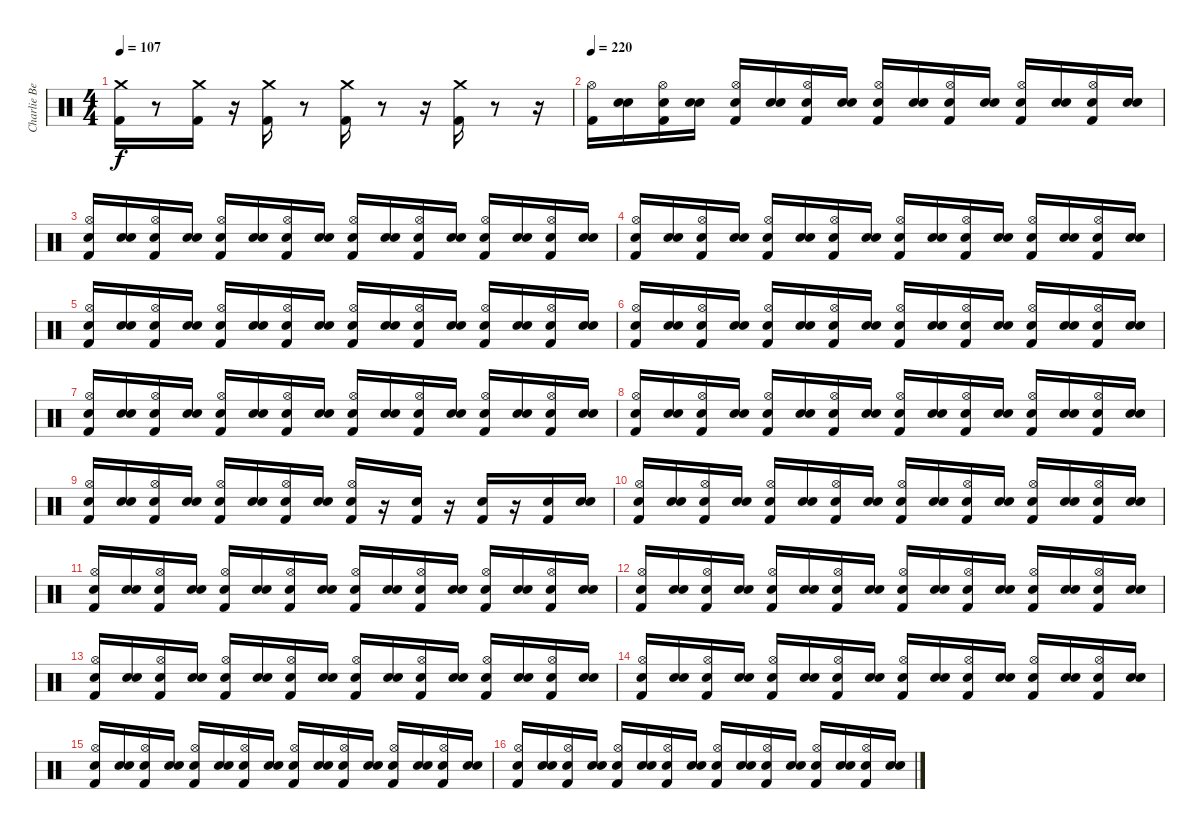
\track ("Charlie Benante" "Charlie Be") {instrument percussion}
\staff {score}
\articulation defaults
\ts (4 4)
\tempo 107
\clef neutral
\ks c
("Kick (hit) 2" "Crash medium (hit)").16{dy f} r.8 ("Kick (hit) 2" "Crash medium (hit)").16 r.16 ("Kick (hit) 2" "Crash medium (hit)").16 r.8 ("Kick (hit) 2" "Crash medium (hit)").16 r.8 r.16 ("Kick (hit) 2" "Crash medium (hit)").16 r.8 r.16 |
\tempo 220
("Kick (hit) 2" "Hi-Hat (open)").16 ("Snare (hit)" "Snare (hit) 2").16 ("Snare (hit)" "Kick (hit) 2" "Hi-Hat (open)").16 ("Snare (hit)" "Snare (hit) 2").16 ("Snare (hit)" "Kick (hit) 2" "Hi-Hat (open)").16 ("Snare (hit)" "Snare (hit) 2").16 ("Snare (hit)" "Kick (hit) 2" "Hi-Hat (open)").16 ("Snare (hit)" "Snare (hit) 2").16 ("Snare (hit)" "Kick (hit) 2" "Hi-Hat (open)").16 ("Snare (hit)" "Snare (hit) 2").16 ("Snare (hit)" "Kick (hit) 2" "Hi-Hat (open)").16 ("Snare (hit)" "Snare (hit) 2").16 ("Snare (hit)" "Kick (hit) 2" "Hi-Hat (open)").16 ("Snare (hit)" "Snare (hit) 2").16 ("Snare (hit)" "Kick (hit) 2" "Hi-Hat (open)").16 ("Snare (hit)" "Snare (hit) 2").16 |
("Snare (hit)" "Kick (hit) 2" "Hi-Hat (open)").16 ("Snare (hit)" "Snare (hit) 2").16 ("Snare (hit)" "Kick (hit) 2" "Hi-Hat (open)").16 ("Snare (hit)" "Snare (hit) 2").16 ("Snare (hit)" "Kick (hit) 2" "Hi-Hat (open)").16 ("Snare (hit)" "Snare (hit) 2").16 ("Snare (hit)" "Kick (hit) 2" "Hi-Hat (open)").16 ("Snare (hit)" "Snare (hit) 2").16 ("Snare (hit)" "Kick (hit) 2" "Hi-Hat (open)").16 ("Snare (hit)" "Snare (hit) 2").16 ("Snare (hit)" "Kick (hit) 2" "Hi-Hat (open)").16 ("Snare (hit)" "Snare (hit) 2").16 ("Snare (hit)" "Kick (hit) 2" "Hi-Hat (open)").16 ("Snare (hit)" "Snare (hit) 2").16 ("Snare (hit)" "Kick (hit) 2" "Hi-Hat (open)").16 ("Snare (hit)" "Snare (hit) 2").16 |
("Snare (hit)" "Kick (hit) 2" "Hi-Hat (open)").16 ("Snare (hit)" "Snare (hit) 2").16 ("Snare (hit)" "Kick (hit) 2" "Hi-Hat (open)").16 ("Snare (hit)" "Snare (hit) 2").16 ("Snare (hit)" "Kick (hit) 2" "Hi-Hat (open)").16 ("Snare (hit)" "Snare (hit) 2").16 ("Snare (hit)" "Kick (hit) 2" "Hi-Hat (open)").16 ("Snare (hit)" "Snare (hit) 2").16 ("Snare (hit)" "Kick (hit) 2" "Hi-Hat (open)").16 ("Snare (hit)" "Snare (hit) 2").16 ("Snare (hit)" "Kick (hit) 2" "Hi-Hat (open)").16 ("Snare (hit)" "Snare (hit) 2").16 ("Snare (hit)" "Kick (hit) 2" "Hi-Hat (open)").16 ("Snare (hit)" "Snare (hit) 2").16 ("Snare (hit)" "Kick (hit) 2" "Hi-Hat (open)").16 ("Snare (hit)" "Snare (hit) 2").16 |
("Snare (hit)" "Kick (hit) 2" "Hi-Hat (open)").16 ("Snare (hit)" "Snare (hit) 2").16 ("Snare (hit)" "Kick (hit) 2" "Hi-Hat (open)").16 ("Snare (hit)" "Snare (hit) 2").16 ("Snare (hit)" "Kick (hit) 2" "Hi-Hat (open)").16 ("Snare (hit)" "Snare (hit) 2").16 ("Snare (hit)" "Kick (hit) 2" "Hi-Hat (open)").16 ("Snare (hit)" "Snare (hit) 2").16 ("Snare (hit)" "Kick (hit) 2" "Hi-Hat (open)").16 ("Snare (hit)" "Snare (hit) 2").16 ("Snare (hit)" "Kick (hit) 2" "Hi-Hat (open)").16 ("Snare (hit)" "Snare (hit) 2").16 ("Snare (hit)" "Kick (hit) 2" "Hi-Hat (open)").16 ("Snare (hit)" "Snare (hit) 2").16 ("Snare (hit)" "Kick (hit) 2" "Hi-Hat (open)").16 ("Snare (hit)" "Snare (hit) 2").16 |
("Snare (hit)" "Kick (hit) 2" "Hi-Hat (open)").16 ("Snare (hit)" "Snare (hit) 2").16 ("Snare (hit)" "Kick (hit) 2" "Hi-Hat (open)").16 ("Snare (hit)" "Snare (hit) 2").16 ("Snare (hit)" "Kick (hit) 2" "Hi-Hat (open)").16 ("Snare (hit)" "Snare (hit) 2").16 ("Snare (hit)" "Kick (hit) 2" "Hi-Hat (open)").16 ("Snare (hit)" "Snare (hit) 2").16 ("Snare (hit)" "Kick (hit) 2" "Hi-Hat (open)").16 ("Snare (hit)" "Snare (hit) 2").16 ("Snare (hit)" "Kick (hit) 2" "Hi-Hat (open)").16 ("Snare (hit)" "Snare (hit) 2").16 ("Snare (hit)" "Kick (hit) 2" "Hi-Hat (open)").16 ("Snare (hit)" "Snare (hit) 2").16 ("Snare (hit)" "Kick (hit) 2" "Hi-Hat (open)").16 ("Snare (hit)" "Snare (hit) 2").16 |
("Snare (hit)" "Kick (hit) 2" "Hi-Hat (open)").16 ("Snare (hit)" "Snare (hit) 2").16 ("Snare (hit)" "Kick (hit) 2" "Hi-Hat (open)").16 ("Snare (hit)" "Snare (hit) 2").16 ("Snare (hit)" "Kick (hit) 2" "Hi-Hat (open)").16 ("Snare (hit)" "Snare (hit) 2").16 ("Snare (hit)" "Kick (hit) 2" "Hi-Hat (open)").16 ("Snare (hit)" "Snare (hit) 2").16 ("Snare (hit)" "Kick (hit) 2" "Hi-Hat (open)").16 ("Snare (hit)" "Snare (hit) 2").16 ("Snare (hit)" "Kick (hit) 2" "Hi-Hat (open)").16 ("Snare (hit)" "Snare (hit) 2").16 ("Snare (hit)" "Kick (hit) 2" "Hi-Hat (open)").16 ("Snare (hit)" "Snare (hit) 2").16 ("Snare (hit)" "Kick (hit) 2" "Hi-Hat (open)").16 ("Snare (hit)" "Snare (hit) 2").16 |
("Snare (hit)" "Kick (hit) 2" "Hi-Hat (open)").16 ("Snare (hit)" "Snare (hit) 2").16 ("Snare (hit)" "Kick (hit) 2" "Hi-Hat (open)").16 ("Snare (hit)" "Snare (hit) 2").16 ("Snare (hit)" "Kick (hit) 2" "Hi-Hat (open)").16 ("Snare (hit)" "Snare (hit) 2").16 ("Snare (hit)" "Kick (hit) 2" "Hi-Hat (open)").16 ("Snare (hit)" "Snare (hit) 2").16 ("Snare (hit)" "Kick (hit) 2" "Hi-Hat (open)").16 ("Snare (hit)" "Snare (hit) 2").16 ("Snare (hit)" "Kick (hit) 2" "Hi-Hat (open)").16 ("Snare (hit)" "Snare (hit) 2").16 ("Snare (hit)" "Kick (hit) 2" "Hi-Hat (open)").16 ("Snare (hit)" "Snare (hit) 2").16 ("Snare (hit)" "Kick (hit) 2" "Hi-Hat (open)").16 ("Snare (hit)" "Snare (hit) 2").16 |
("Snare (hit)" "Kick (hit) 2" "Hi-Hat (open)").16 ("Snare (hit)" "Snare (hit) 2").16 ("Snare (hit)" "Kick (hit) 2" "Hi-Hat (open)").16 ("Snare (hit)" "Snare (hit) 2").16 ("Snare (hit)" "Kick (hit) 2" "Hi-Hat (open)").16 ("Snare (hit)" "Snare (hit) 2").16 ("Snare (hit)" "Kick (hit) 2" "Hi-Hat (open)").16 ("Snare (hit)" "Snare (hit) 2").16 ("Snare (hit)" "Kick (hit) 2" "Hi-Hat (open)").16 r.16 ("Kick (hit) 2" "Snare (hit) 2").16 r.16 ("Kick (hit) 2" "Snare (hit) 2").16 r.16 ("Kick (hit) 2" "Snare (hit) 2").16 ("Snare (hit)" "Snare (hit) 2").16 |
("Snare (hit)" "Kick (hit) 2" "Hi-Hat (open)").16 ("Snare (hit)" "Snare (hit) 2").16 ("Snare (hit)" "Kick (hit) 2" "Hi-Hat (open)").16 ("Snare (hit)" "Snare (hit) 2").16 ("Snare (hit)" "Kick (hit) 2" "Hi-Hat (open)").16 ("Snare (hit)" "Snare (hit) 2").16 ("Snare (hit)" "Kick (hit) 2" "Hi-Hat (open)").16 ("Snare (hit)" "Snare (hit) 2").16 ("Snare (hit)" "Kick (hit) 2" "Hi-Hat (open)").16 ("Snare (hit)" "Snare (hit) 2").16 ("Snare (hit)" "Kick (hit) 2" "Hi-Hat (open)").16 ("Snare (hit)" "Snare (hit) 2").16 ("Snare (hit)" "Kick (hit) 2" "Hi-Hat (open)").16 ("Snare (hit)" "Snare (hit) 2").16 ("Snare (hit)" "Kick (hit) 2" "Hi-Hat (open)").16 ("Snare (hit)" "Snare (hit) 2").16 |
("Snare (hit)" "Kick (hit) 2" "Hi-Hat (open)").16 ("Snare (hit)" "Snare (hit) 2").16 ("Snare (hit)" "Kick (hit) 2" "Hi-Hat (open)").16 ("Snare (hit)" "Snare (hit) 2").16 ("Snare (hit)" "Kick (hit) 2" "Hi-Hat (open)").16 ("Snare (hit)" "Snare (hit) 2").16 ("Snare (hit)" "Kick (hit) 2" "Hi-Hat (open)").16 ("Snare (hit)" "Snare (hit) 2").16 ("Snare (hit)" "Kick (hit) 2" "Hi-Hat (open)").16 ("Snare (hit)" "Snare (hit) 2").16 ("Snare (hit)" "Kick (hit) 2" "Hi-Hat (open)").16 ("Snare (hit)" "Snare (hit) 2").16 ("Snare (hit)" "Kick (hit) 2" "Hi-Hat (open)").16 ("Snare (hit)" "Snare (hit) 2").16 ("Snare (hit)" "Kick (hit) 2" "Hi-Hat (open)").16 ("Snare (hit)" "Snare (hit) 2").16 |
("Snare (hit)" "Kick (hit) 2" "Hi-Hat (open)").16 ("Snare (hit)" "Snare (hit) 2").16 ("Snare (hit)" "Kick (hit) 2" "Hi-Hat (open)").16 ("Snare (hit)" "Snare (hit) 2").16 ("Snare (hit)" "Kick (hit) 2" "Hi-Hat (open)").16 ("Snare (hit)" "Snare (hit) 2").16 ("Snare (hit)" "Kick (hit) 2" "Hi-Hat (open)").16 ("Snare (hit)" "Snare (hit) 2").16 ("Snare (hit)" "Kick (hit) 2" "Hi-Hat (open)").16 ("Snare (hit)" "Snare (hit) 2").16 ("Snare (hit)" "Kick (hit) 2" "Hi-Hat (open)").16 ("Snare (hit)" "Snare (hit) 2").16 ("Snare (hit)" "Kick (hit) 2" "Hi-Hat (open)").16 ("Snare (hit)" "Snare (hit) 2").16 ("Snare (hit)" "Kick (hit) 2" "Hi-Hat (open)").16 ("Snare (hit)" "Snare (hit) 2").16 |
("Snare (hit)" "Kick (hit) 2" "Hi-Hat (open)").16 ("Snare (hit)" "Snare (hit) 2").16 ("Snare (hit)" "Kick (hit) 2" "Hi-Hat (open)").16 ("Snare (hit)" "Snare (hit) 2").16 ("Snare (hit)" "Kick (hit) 2" "Hi-Hat (open)").16 ("Snare (hit)" "Snare (hit) 2").16 ("Snare (hit)" "Kick (hit) 2" "Hi-Hat (open)").16 ("Snare (hit)" "Snare (hit) 2").16 ("Snare (hit)" "Kick (hit) 2" "Hi-Hat (open)").16 ("Snare (hit)" "Snare (hit) 2").16 ("Snare (hit)" "Kick (hit) 2" "Hi-Hat (open)").16 ("Snare (hit)" "Snare (hit) 2").16 ("Snare (hit)" "Kick (hit) 2" "Hi-Hat (open)").16 ("Snare (hit)" "Snare (hit) 2").16 ("Snare (hit)" "Kick (hit) 2" "Hi-Hat (open)").16 ("Snare (hit)" "Snare (hit) 2").16 |
("Snare (hit)" "Kick (hit) 2" "Hi-Hat (open)").16 ("Snare (hit)" "Snare (hit) 2").16 ("Snare (hit)" "Kick (hit) 2" "Hi-Hat (open)").16 ("Snare (hit)" "Snare (hit) 2").16 ("Snare (hit)" "Kick (hit) 2" "Hi-Hat (open)").16 ("Snare (hit)" "Snare (hit) 2").16 ("Snare (hit)" "Kick (hit) 2" "Hi-Hat (open)").16 ("Snare (hit)" "Snare (hit) 2").16 ("Snare (hit)" "Kick (hit) 2" "Hi-Hat (open)").16 ("Snare (hit)" "Snare (hit) 2").16 ("Snare (hit)" "Kick (hit) 2" "Hi-Hat (open)").16 ("Snare (hit)" "Snare (hit) 2").16 ("Snare (hit)" "Kick (hit) 2" "Hi-Hat (open)").16 ("Snare (hit)" "Snare (hit) 2").16 ("Snare (hit)" "Kick (hit) 2" "Hi-Hat (open)").16 ("Snare (hit)" "Snare (hit) 2").16 |
("Snare (hit)" "Kick (hit) 2" "Hi-Hat (open)").16 ("Snare (hit)" "Snare (hit) 2").16 ("Snare (hit)" "Kick (hit) 2" "Hi-Hat (open)").16 ("Snare (hit)" "Snare (hit) 2").16 ("Snare (hit)" "Kick (hit) 2" "Hi-Hat (open)").16 ("Snare (hit)" "Snare (hit) 2").16 ("Snare (hit)" "Kick (hit) 2" "Hi-Hat (open)").16 ("Snare (hit)" "Snare (hit) 2").16 ("Snare (hit)" "Kick (hit) 2" "Hi-Hat (open)").16 ("Snare (hit)" "Snare (hit) 2").16 ("Snare (hit)" "Kick (hit) 2" "Hi-Hat (open)").16 ("Snare (hit)" "Snare (hit) 2").16 ("Snare (hit)" "Kick (hit) 2" "Hi-Hat (open)").16 ("Snare (hit)" "Snare (hit) 2").16 ("Snare (hit)" "Kick (hit) 2" "Hi-Hat (open)").16 ("Snare (hit)" "Snare (hit) 2").16 |
("Snare (hit)" "Kick (hit) 2" "Hi-Hat (open)").16 ("Snare (hit)" "Snare (hit) 2").16 ("Snare (hit)" "Kick (hit) 2" "Hi-Hat (open)").16 ("Snare (hit)" "Snare (hit) 2").16 ("Snare (hit)" "Kick (hit) 2" "Hi-Hat (open)").16 ("Snare (hit)" "Snare (hit) 2").16 ("Snare (hit)" "Kick (hit) 2" "Hi-Hat (open)").16 ("Snare (hit)" "Snare (hit) 2").16 ("Snare (hit)" "Kick (hit) 2" "Hi-Hat (open)").16 ("Snare (hit)" "Snare (hit) 2").16 ("Snare (hit)" "Kick (hit) 2" "Hi-Hat (open)").16 ("Snare (hit)" "Snare (hit) 2").16 ("Snare (hit)" "Kick (hit) 2" "Hi-Hat (open)").16 ("Snare (hit)" "Snare (hit) 2").16 ("Snare (hit)" "Kick (hit) 2" "Hi-Hat (open)").16 ("Snare (hit)" "Snare (hit) 2").16
